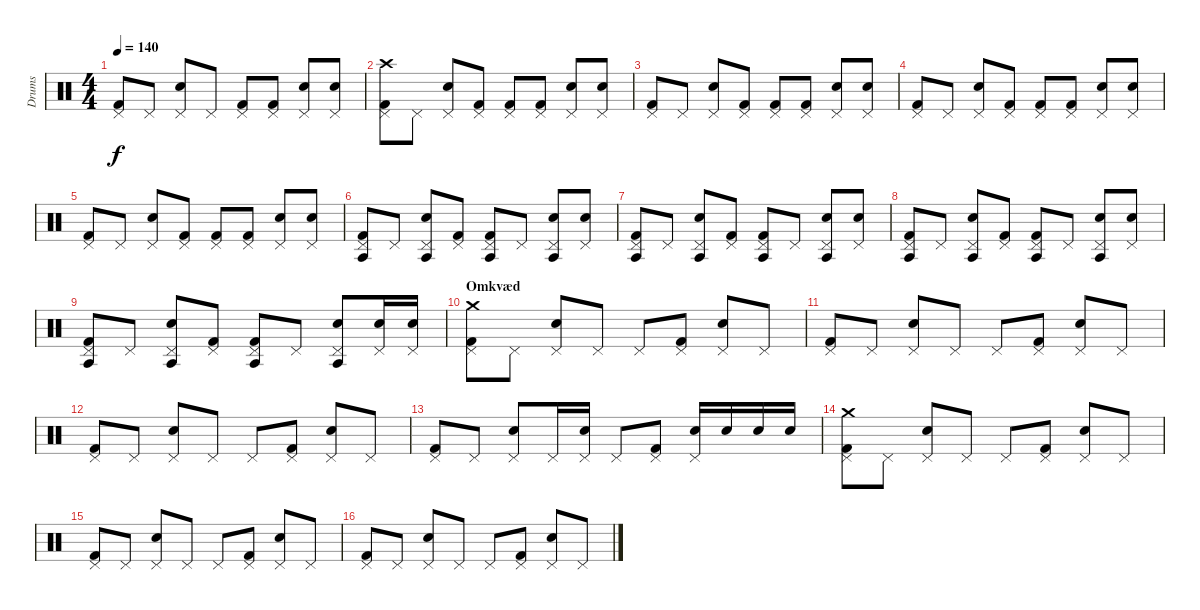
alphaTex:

\track ("Drums" "Drums") {instrument percussion}
\staff {score}
\articulation defaults
\ts (4 4)
\tempo 140
\clef neutral
\ks c
("Pedal Hi-Hat (hit)" "Kick (hit) 2").8{dy f} "Pedal Hi-Hat (hit)".8 ("Pedal Hi-Hat (hit)" "Snare (hit) 2").8 "Pedal Hi-Hat (hit)".8 ("Pedal Hi-Hat (hit)" "Kick (hit) 2").8 ("Pedal Hi-Hat (hit)" "Kick (hit) 2").8 ("Pedal Hi-Hat (hit)" "Snare (hit) 2").8 ("Pedal Hi-Hat (hit)" "Snare (hit) 2").8 |
("Crash high (hit)" "Pedal Hi-Hat (hit)" "Kick (hit) 2").8 "Pedal Hi-Hat (hit)".8 ("Pedal Hi-Hat (hit)" "Snare (hit) 2").8 ("Pedal Hi-Hat (hit)" "Kick (hit) 2").8 ("Pedal Hi-Hat (hit)" "Kick (hit) 2").8 ("Pedal Hi-Hat (hit)" "Kick (hit) 2").8 ("Pedal Hi-Hat (hit)" "Snare (hit) 2").8 ("Pedal Hi-Hat (hit)" "Snare (hit) 2").8 |
("Pedal Hi-Hat (hit)" "Kick (hit) 2").8 "Pedal Hi-Hat (hit)".8 ("Pedal Hi-Hat (hit)" "Snare (hit) 2").8 ("Pedal Hi-Hat (hit)" "Kick (hit) 2").8 ("Pedal Hi-Hat (hit)" "Kick (hit) 2").8 ("Pedal Hi-Hat (hit)" "Kick (hit) 2").8 ("Pedal Hi-Hat (hit)" "Snare (hit) 2").8 ("Pedal Hi-Hat (hit)" "Snare (hit) 2").8 |
("Pedal Hi-Hat (hit)" "Kick (hit) 2").8 "Pedal Hi-Hat (hit)".8 ("Pedal Hi-Hat (hit)" "Snare (hit) 2").8 ("Pedal Hi-Hat (hit)" "Kick (hit) 2").8 ("Pedal Hi-Hat (hit)" "Kick (hit) 2").8 ("Pedal Hi-Hat (hit)" "Kick (hit) 2").8 ("Pedal Hi-Hat (hit)" "Snare (hit) 2").8 ("Pedal Hi-Hat (hit)" "Snare (hit) 2").8 |
("Pedal Hi-Hat (hit)" "Kick (hit) 2").8 "Pedal Hi-Hat (hit)".8 ("Pedal Hi-Hat (hit)" "Snare (hit) 2").8 ("Pedal Hi-Hat (hit)" "Kick (hit) 2").8 ("Pedal Hi-Hat (hit)" "Kick (hit) 2").8 ("Pedal Hi-Hat (hit)" "Kick (hit) 2").8 ("Pedal Hi-Hat (hit)" "Snare (hit) 2").8 ("Pedal Hi-Hat (hit)" "Snare (hit) 2").8 |
("Agogo tow (hit)" "Pedal Hi-Hat (hit)" "Kick (hit) 2").8 "Pedal Hi-Hat (hit)".8 ("Agogo tow (hit)" "Pedal Hi-Hat (hit)" "Snare (hit) 2").8 ("Pedal Hi-Hat (hit)" "Kick (hit) 2").8 ("Agogo tow (hit)" "Pedal Hi-Hat (hit)" "Kick (hit) 2").8 "Pedal Hi-Hat (hit)".8 ("Agogo tow (hit)" "Pedal Hi-Hat (hit)" "Snare (hit) 2").8 ("Pedal Hi-Hat (hit)" "Snare (hit) 2").8 |
("Agogo tow (hit)" "Pedal Hi-Hat (hit)" "Kick (hit) 2").8 "Pedal Hi-Hat (hit)".8 ("Agogo tow (hit)" "Pedal Hi-Hat (hit)" "Snare (hit) 2").8 ("Pedal Hi-Hat (hit)" "Kick (hit) 2").8 ("Agogo tow (hit)" "Pedal Hi-Hat (hit)" "Kick (hit) 2").8 "Pedal Hi-Hat (hit)".8 ("Agogo tow (hit)" "Pedal Hi-Hat (hit)" "Snare (hit) 2").8 ("Pedal Hi-Hat (hit)" "Snare (hit) 2").8 |
("Agogo tow (hit)" "Pedal Hi-Hat (hit)" "Kick (hit) 2").8 "Pedal Hi-Hat (hit)".8 ("Agogo tow (hit)" "Pedal Hi-Hat (hit)" "Snare (hit) 2").8 ("Pedal Hi-Hat (hit)" "Kick (hit) 2").8 ("Agogo tow (hit)" "Pedal Hi-Hat (hit)" "Kick (hit) 2").8 "Pedal Hi-Hat (hit)".8 ("Agogo tow (hit)" "Pedal Hi-Hat (hit)" "Snare (hit) 2").8 ("Pedal Hi-Hat (hit)" "Snare (hit) 2").8 |
("Agogo tow (hit)" "Pedal Hi-Hat (hit)" "Kick (hit) 2").8 "Pedal Hi-Hat (hit)".8 ("Agogo tow (hit)" "Pedal Hi-Hat (hit)" "Snare (hit) 2").8 ("Pedal Hi-Hat (hit)" "Kick (hit) 2").8 ("Agogo tow (hit)" "Pedal Hi-Hat (hit)" "Kick (hit) 2").8 "Pedal Hi-Hat (hit)".8 ("Agogo tow (hit)" "Pedal Hi-Hat (hit)" "Snare (hit) 2").8 ("Pedal Hi-Hat (hit)" "Snare (hit) 2").16 ("Pedal Hi-Hat (hit)" "Snare (hit) 2").16 |
\section ("" "Omkvæd")
("Crash medium (hit)" "Pedal Hi-Hat (hit)" "Kick (hit) 2").8 "Pedal Hi-Hat (hit)".8 ("Pedal Hi-Hat (hit)" "Snare (hit) 2").8 "Pedal Hi-Hat (hit)".8 "Pedal Hi-Hat (hit)".8 ("Pedal Hi-Hat (hit)" "Kick (hit) 2").8 ("Pedal Hi-Hat (hit)" "Snare (hit) 2").8 "Pedal Hi-Hat (hit)".8 |
("Pedal Hi-Hat (hit)" "Kick (hit) 2").8 "Pedal Hi-Hat (hit)".8 ("Pedal Hi-Hat (hit)" "Snare (hit) 2").8 "Pedal Hi-Hat (hit)".8 "Pedal Hi-Hat (hit)".8 ("Pedal Hi-Hat (hit)" "Kick (hit) 2").8 ("Pedal Hi-Hat (hit)" "Snare (hit) 2").8 "Pedal Hi-Hat (hit)".8 |
("Pedal Hi-Hat (hit)" "Kick (hit) 2").8 "Pedal Hi-Hat (hit)".8 ("Pedal Hi-Hat (hit)" "Snare (hit) 2").8 "Pedal Hi-Hat (hit)".8 "Pedal Hi-Hat (hit)".8 ("Pedal Hi-Hat (hit)" "Kick (hit) 2").8 ("Pedal Hi-Hat (hit)" "Snare (hit) 2").8 "Pedal Hi-Hat (hit)".8 |
("Pedal Hi-Hat (hit)" "Kick (hit) 2").8 "Pedal Hi-Hat (hit)".8 ("Pedal Hi-Hat (hit)" "Snare (hit) 2").8 "Pedal Hi-Hat (hit)".16 ("Pedal Hi-Hat (hit)" "Snare (hit) 2").16 "Pedal Hi-Hat (hit)".8 ("Pedal Hi-Hat (hit)" "Kick (hit) 2").8 ("Pedal Hi-Hat (hit)" "Snare (hit) 2").16 "Snare (hit) 2".16 "Snare (hit) 2".16 "Snare (hit) 2".16 |
("Crash medium (hit)" "Pedal Hi-Hat (hit)" "Kick (hit) 2").8 "Pedal Hi-Hat (hit)".8 ("Pedal Hi-Hat (hit)" "Snare (hit) 2").8 "Pedal Hi-Hat (hit)".8 "Pedal Hi-Hat (hit)".8 ("Pedal Hi-Hat (hit)" "Kick (hit) 2").8 ("Pedal Hi-Hat (hit)" "Snare (hit) 2").8 "Pedal Hi-Hat (hit)".8 |
("Pedal Hi-Hat (hit)" "Kick (hit) 2").8 "Pedal Hi-Hat (hit)".8 ("Pedal Hi-Hat (hit)" "Snare (hit) 2").8 "Pedal Hi-Hat (hit)".8 "Pedal Hi-Hat (hit)".8 ("Pedal Hi-Hat (hit)" "Kick (hit) 2").8 ("Pedal Hi-Hat (hit)" "Snare (hit) 2").8 "Pedal Hi-Hat (hit)".8 |
("Pedal Hi-Hat (hit)" "Kick (hit) 2").8 "Pedal Hi-Hat (hit)".8 ("Pedal Hi-Hat (hit)" "Snare (hit) 2").8 "Pedal Hi-Hat (hit)".8 "Pedal Hi-Hat (hit)".8 ("Pedal Hi-Hat (hit)" "Kick (hit) 2").8 ("Pedal Hi-Hat (hit)" "Snare (hit) 2").8 "Pedal Hi-Hat (hit)".8
